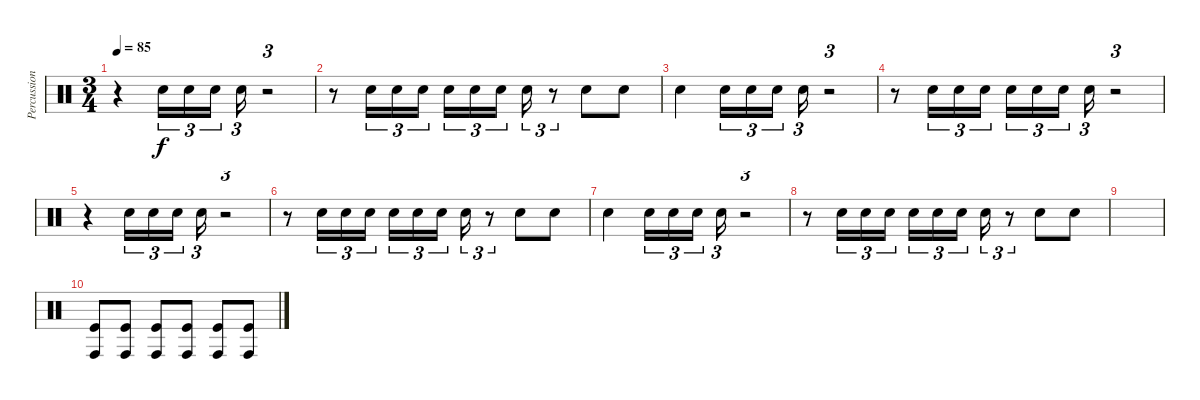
\track ("Percussion" "Percussion") {instrument percussion}
\staff {score}
\articulation defaults
\ts (3 4)
\tempo 85
\clef neutral
\ks c
r.4{dy f} "Snare (hit) 2".16{tu (3 2)} "Snare (hit) 2".16{tu (3 2)} "Snare (hit) 2".16{tu (3 2)} "Snare (hit) 2".16{tu (3 2)} r.2{tu (3 2)} |
r.8 "Snare (hit) 2".16{tu (3 2)} "Snare (hit) 2".16{tu (3 2)} "Snare (hit) 2".16{tu (3 2)} "Snare (hit) 2".16{tu (3 2)} "Snare (hit) 2".16{tu (3 2)} "Snare (hit) 2".16{tu (3 2)} "Snare (hit) 2".16{tu (3 2)} r.8{tu (3 2)} "Snare (hit) 2".8 "Snare (hit) 2".8 |
"Snare (hit) 2".4 "Snare (hit) 2".16{tu (3 2)} "Snare (hit) 2".16{tu (3 2)} "Snare (hit) 2".16{tu (3 2)} "Snare (hit) 2".16{tu (3 2)} r.2{tu (3 2)} |
r.8 "Snare (hit) 2".16{tu (3 2)} "Snare (hit) 2".16{tu (3 2)} "Snare (hit) 2".16{tu (3 2)} "Snare (hit) 2".16{tu (3 2)} "Snare (hit) 2".16{tu (3 2)} "Snare (hit) 2".16{tu (3 2)} "Snare (hit) 2".16{tu (3 2)} r.2{tu (3 2)} |
r.4 "Snare (hit) 2".16{tu (3 2)} "Snare (hit) 2".16{tu (3 2)} "Snare (hit) 2".16{tu (3 2)} "Snare (hit) 2".16{tu (3 2)} r.2{tu (3 2)} |
r.8 "Snare (hit) 2".16{tu (3 2)} "Snare (hit) 2".16{tu (3 2)} "Snare (hit) 2".16{tu (3 2)} "Snare (hit) 2".16{tu (3 2)} "Snare (hit) 2".16{tu (3 2)} "Snare (hit) 2".16{tu (3 2)} "Snare (hit) 2".16{tu (3 2)} r.8{tu (3 2)} "Snare (hit) 2".8 "Snare (hit) 2".8 |
"Snare (hit) 2".4 "Snare (hit) 2".16{tu (3 2)} "Snare (hit) 2".16{tu (3 2)} "Snare (hit) 2".16{tu (3 2)} "Snare (hit) 2".16{tu (3 2)} r.2{tu (3 2)} |
r.8 "Snare (hit) 2".16{tu (3 2)} "Snare (hit) 2".16{tu (3 2)} "Snare (hit) 2".16{tu (3 2)} "Snare (hit) 2".16{tu (3 2)} "Snare (hit) 2".16{tu (3 2)} "Snare (hit) 2".16{tu (3 2)} "Snare (hit) 2".16{tu (3 2)} r.8{tu (3 2)} "Snare (hit) 2".8 "Snare (hit) 2".8 |
|
("Kick (hit)" "Conga high (hit)").8 ("Kick (hit)" "Conga high (hit)").8 ("Kick (hit)" "Conga high (hit)").8 ("Kick (hit)" "Conga high (hit)").8 ("Kick (hit)" "Conga high (hit)").8 ("Kick (hit)" "Conga high (hit)").8
